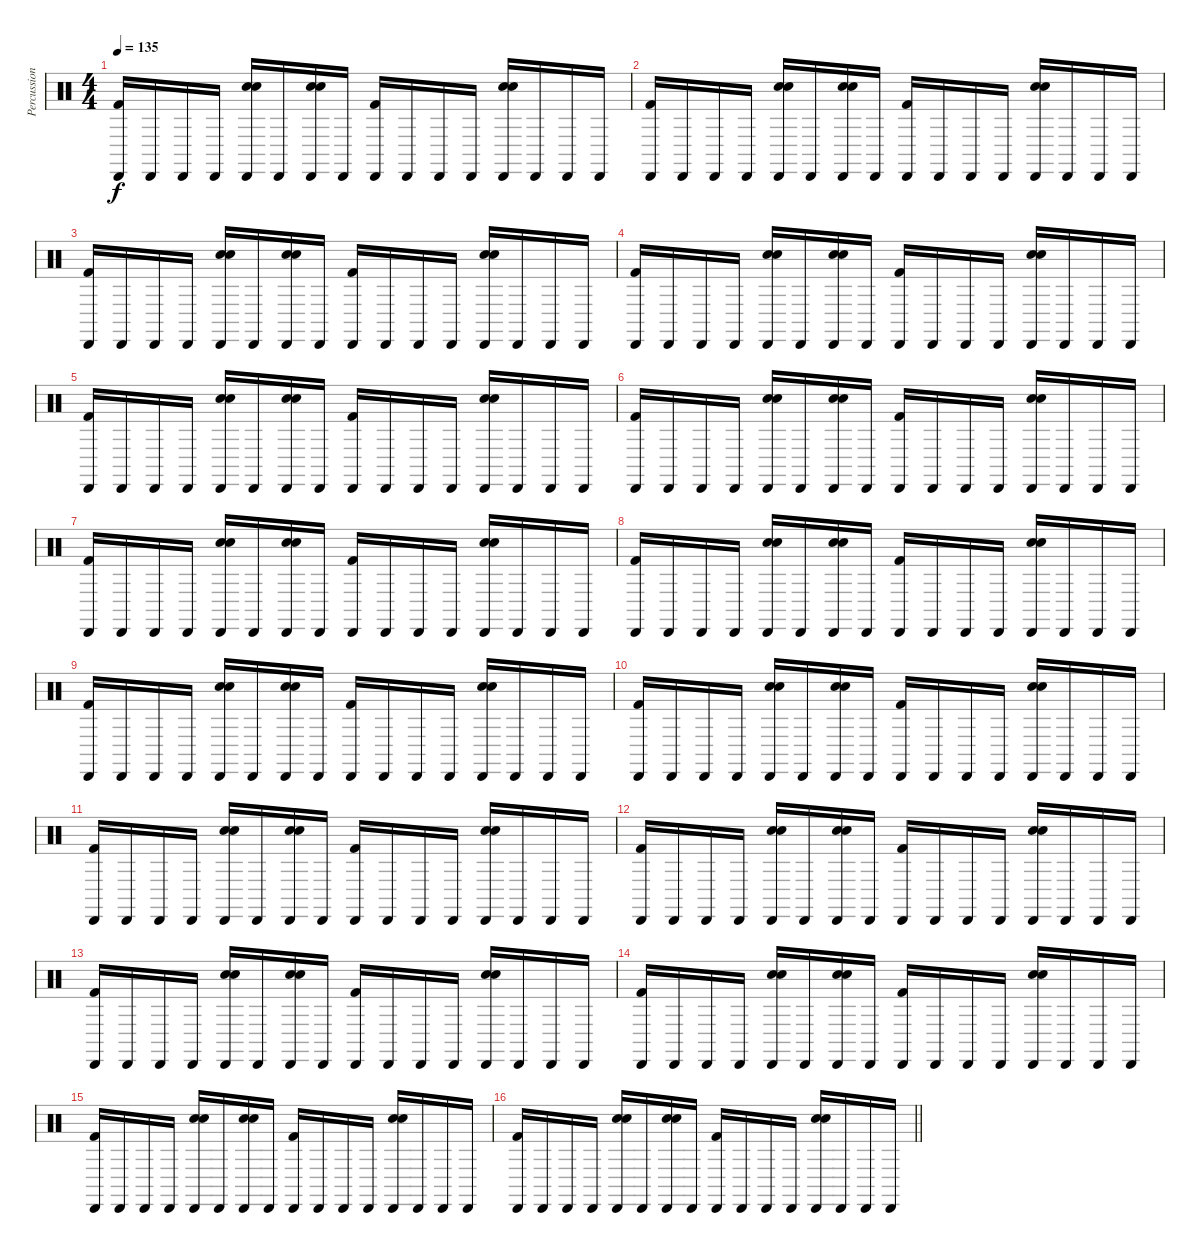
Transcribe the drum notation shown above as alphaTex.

\track ("Percussion" "Percussion") {instrument percussion}
\staff {score}
\articulation defaults
\ts (4 4)
\tempo 135
\clef neutral
\ks c
("Cabasa (hit)" "Kick (hit) 2").16{dy f} "Cabasa (hit)".16 "Cabasa (hit)".16 "Cabasa (hit)".16 ("Cabasa (hit)" "Snare (hit) 2" "Hand Clap (hit)").16 "Cabasa (hit)".16 ("Cabasa (hit)" "Snare (hit) 2" "Hand Clap (hit)").16 "Cabasa (hit)".16 ("Cabasa (hit)" "Kick (hit) 2").16 "Cabasa (hit)".16 "Cabasa (hit)".16 "Cabasa (hit)".16 ("Cabasa (hit)" "Snare (hit) 2" "Hand Clap (hit)").16 "Cabasa (hit)".16 "Cabasa (hit)".16 "Cabasa (hit)".16 |
("Cabasa (hit)" "Kick (hit) 2").16 "Cabasa (hit)".16 "Cabasa (hit)".16 "Cabasa (hit)".16 ("Cabasa (hit)" "Snare (hit) 2" "Hand Clap (hit)").16 "Cabasa (hit)".16 ("Cabasa (hit)" "Snare (hit) 2" "Hand Clap (hit)").16 "Cabasa (hit)".16 ("Cabasa (hit)" "Kick (hit) 2").16 "Cabasa (hit)".16 "Cabasa (hit)".16 "Cabasa (hit)".16 ("Cabasa (hit)" "Snare (hit) 2" "Hand Clap (hit)").16 "Cabasa (hit)".16 "Cabasa (hit)".16 "Cabasa (hit)".16 |
("Cabasa (hit)" "Kick (hit) 2").16 "Cabasa (hit)".16 "Cabasa (hit)".16 "Cabasa (hit)".16 ("Cabasa (hit)" "Snare (hit) 2" "Hand Clap (hit)").16 "Cabasa (hit)".16 ("Cabasa (hit)" "Snare (hit) 2" "Hand Clap (hit)").16 "Cabasa (hit)".16 ("Cabasa (hit)" "Kick (hit) 2").16 "Cabasa (hit)".16 "Cabasa (hit)".16 "Cabasa (hit)".16 ("Cabasa (hit)" "Snare (hit) 2" "Hand Clap (hit)").16 "Cabasa (hit)".16 "Cabasa (hit)".16 "Cabasa (hit)".16 |
("Cabasa (hit)" "Kick (hit) 2").16 "Cabasa (hit)".16 "Cabasa (hit)".16 "Cabasa (hit)".16 ("Cabasa (hit)" "Snare (hit) 2" "Hand Clap (hit)").16 "Cabasa (hit)".16 ("Cabasa (hit)" "Snare (hit) 2" "Hand Clap (hit)").16 "Cabasa (hit)".16 ("Cabasa (hit)" "Kick (hit) 2").16 "Cabasa (hit)".16 "Cabasa (hit)".16 "Cabasa (hit)".16 ("Cabasa (hit)" "Snare (hit) 2" "Hand Clap (hit)").16 "Cabasa (hit)".16 "Cabasa (hit)".16 "Cabasa (hit)".16 |
("Cabasa (hit)" "Kick (hit) 2").16 "Cabasa (hit)".16 "Cabasa (hit)".16 "Cabasa (hit)".16 ("Cabasa (hit)" "Snare (hit) 2" "Hand Clap (hit)").16 "Cabasa (hit)".16 ("Cabasa (hit)" "Snare (hit) 2" "Hand Clap (hit)").16 "Cabasa (hit)".16 ("Cabasa (hit)" "Kick (hit) 2").16 "Cabasa (hit)".16 "Cabasa (hit)".16 "Cabasa (hit)".16 ("Cabasa (hit)" "Snare (hit) 2" "Hand Clap (hit)").16 "Cabasa (hit)".16 "Cabasa (hit)".16 "Cabasa (hit)".16 |
("Cabasa (hit)" "Kick (hit) 2").16 "Cabasa (hit)".16 "Cabasa (hit)".16 "Cabasa (hit)".16 ("Cabasa (hit)" "Snare (hit) 2" "Hand Clap (hit)").16 "Cabasa (hit)".16 ("Cabasa (hit)" "Snare (hit) 2" "Hand Clap (hit)").16 "Cabasa (hit)".16 ("Cabasa (hit)" "Kick (hit) 2").16 "Cabasa (hit)".16 "Cabasa (hit)".16 "Cabasa (hit)".16 ("Cabasa (hit)" "Snare (hit) 2" "Hand Clap (hit)").16 "Cabasa (hit)".16 "Cabasa (hit)".16 "Cabasa (hit)".16 |
("Cabasa (hit)" "Kick (hit) 2").16 "Cabasa (hit)".16 "Cabasa (hit)".16 "Cabasa (hit)".16 ("Cabasa (hit)" "Snare (hit) 2" "Hand Clap (hit)").16 "Cabasa (hit)".16 ("Cabasa (hit)" "Snare (hit) 2" "Hand Clap (hit)").16 "Cabasa (hit)".16 ("Cabasa (hit)" "Kick (hit) 2").16 "Cabasa (hit)".16 "Cabasa (hit)".16 "Cabasa (hit)".16 ("Cabasa (hit)" "Snare (hit) 2" "Hand Clap (hit)").16 "Cabasa (hit)".16 "Cabasa (hit)".16 "Cabasa (hit)".16 |
("Cabasa (hit)" "Kick (hit) 2").16 "Cabasa (hit)".16 "Cabasa (hit)".16 "Cabasa (hit)".16 ("Cabasa (hit)" "Snare (hit) 2" "Hand Clap (hit)").16 "Cabasa (hit)".16 ("Cabasa (hit)" "Snare (hit) 2" "Hand Clap (hit)").16 "Cabasa (hit)".16 ("Cabasa (hit)" "Kick (hit) 2").16 "Cabasa (hit)".16 "Cabasa (hit)".16 "Cabasa (hit)".16 ("Cabasa (hit)" "Snare (hit) 2" "Hand Clap (hit)").16 "Cabasa (hit)".16 "Cabasa (hit)".16 "Cabasa (hit)".16 |
("Cabasa (hit)" "Kick (hit) 2").16 "Cabasa (hit)".16 "Cabasa (hit)".16 "Cabasa (hit)".16 ("Cabasa (hit)" "Snare (hit) 2" "Hand Clap (hit)").16 "Cabasa (hit)".16 ("Cabasa (hit)" "Snare (hit) 2" "Hand Clap (hit)").16 "Cabasa (hit)".16 ("Cabasa (hit)" "Kick (hit) 2").16 "Cabasa (hit)".16 "Cabasa (hit)".16 "Cabasa (hit)".16 ("Cabasa (hit)" "Snare (hit) 2" "Hand Clap (hit)").16 "Cabasa (hit)".16 "Cabasa (hit)".16 "Cabasa (hit)".16 |
("Cabasa (hit)" "Kick (hit) 2").16 "Cabasa (hit)".16 "Cabasa (hit)".16 "Cabasa (hit)".16 ("Cabasa (hit)" "Snare (hit) 2" "Hand Clap (hit)").16 "Cabasa (hit)".16 ("Cabasa (hit)" "Snare (hit) 2" "Hand Clap (hit)").16 "Cabasa (hit)".16 ("Cabasa (hit)" "Kick (hit) 2").16 "Cabasa (hit)".16 "Cabasa (hit)".16 "Cabasa (hit)".16 ("Cabasa (hit)" "Snare (hit) 2" "Hand Clap (hit)").16 "Cabasa (hit)".16 "Cabasa (hit)".16 "Cabasa (hit)".16 |
("Cabasa (hit)" "Kick (hit) 2").16 "Cabasa (hit)".16 "Cabasa (hit)".16 "Cabasa (hit)".16 ("Cabasa (hit)" "Snare (hit) 2" "Hand Clap (hit)").16 "Cabasa (hit)".16 ("Cabasa (hit)" "Snare (hit) 2" "Hand Clap (hit)").16 "Cabasa (hit)".16 ("Cabasa (hit)" "Kick (hit) 2").16 "Cabasa (hit)".16 "Cabasa (hit)".16 "Cabasa (hit)".16 ("Cabasa (hit)" "Snare (hit) 2" "Hand Clap (hit)").16 "Cabasa (hit)".16 "Cabasa (hit)".16 "Cabasa (hit)".16 |
("Cabasa (hit)" "Kick (hit) 2").16 "Cabasa (hit)".16 "Cabasa (hit)".16 "Cabasa (hit)".16 ("Cabasa (hit)" "Snare (hit) 2" "Hand Clap (hit)").16 "Cabasa (hit)".16 ("Cabasa (hit)" "Snare (hit) 2" "Hand Clap (hit)").16 "Cabasa (hit)".16 ("Cabasa (hit)" "Kick (hit) 2").16 "Cabasa (hit)".16 "Cabasa (hit)".16 "Cabasa (hit)".16 ("Cabasa (hit)" "Snare (hit) 2" "Hand Clap (hit)").16 "Cabasa (hit)".16 "Cabasa (hit)".16 "Cabasa (hit)".16 |
("Cabasa (hit)" "Kick (hit) 2").16 "Cabasa (hit)".16 "Cabasa (hit)".16 "Cabasa (hit)".16 ("Cabasa (hit)" "Snare (hit) 2" "Hand Clap (hit)").16 "Cabasa (hit)".16 ("Cabasa (hit)" "Snare (hit) 2" "Hand Clap (hit)").16 "Cabasa (hit)".16 ("Cabasa (hit)" "Kick (hit) 2").16 "Cabasa (hit)".16 "Cabasa (hit)".16 "Cabasa (hit)".16 ("Cabasa (hit)" "Snare (hit) 2" "Hand Clap (hit)").16 "Cabasa (hit)".16 "Cabasa (hit)".16 "Cabasa (hit)".16 |
("Cabasa (hit)" "Kick (hit) 2").16 "Cabasa (hit)".16 "Cabasa (hit)".16 "Cabasa (hit)".16 ("Cabasa (hit)" "Snare (hit) 2" "Hand Clap (hit)").16 "Cabasa (hit)".16 ("Cabasa (hit)" "Snare (hit) 2" "Hand Clap (hit)").16 "Cabasa (hit)".16 ("Cabasa (hit)" "Kick (hit) 2").16 "Cabasa (hit)".16 "Cabasa (hit)".16 "Cabasa (hit)".16 ("Cabasa (hit)" "Snare (hit) 2" "Hand Clap (hit)").16 "Cabasa (hit)".16 "Cabasa (hit)".16 "Cabasa (hit)".16 |
("Cabasa (hit)" "Kick (hit) 2").16 "Cabasa (hit)".16 "Cabasa (hit)".16 "Cabasa (hit)".16 ("Cabasa (hit)" "Snare (hit) 2" "Hand Clap (hit)").16 "Cabasa (hit)".16 ("Cabasa (hit)" "Snare (hit) 2" "Hand Clap (hit)").16 "Cabasa (hit)".16 ("Cabasa (hit)" "Kick (hit) 2").16 "Cabasa (hit)".16 "Cabasa (hit)".16 "Cabasa (hit)".16 ("Cabasa (hit)" "Snare (hit) 2" "Hand Clap (hit)").16 "Cabasa (hit)".16 "Cabasa (hit)".16 "Cabasa (hit)".16 |
\barLineRight lightlight
("Cabasa (hit)" "Kick (hit) 2").16 "Cabasa (hit)".16 "Cabasa (hit)".16 "Cabasa (hit)".16 ("Cabasa (hit)" "Snare (hit) 2" "Hand Clap (hit)").16 "Cabasa (hit)".16 ("Cabasa (hit)" "Snare (hit) 2" "Hand Clap (hit)").16 "Cabasa (hit)".16 ("Cabasa (hit)" "Kick (hit) 2").16 "Cabasa (hit)".16 "Cabasa (hit)".16 "Cabasa (hit)".16 ("Cabasa (hit)" "Snare (hit) 2" "Hand Clap (hit)").16 "Cabasa (hit)".16 "Cabasa (hit)".16 "Cabasa (hit)".16
